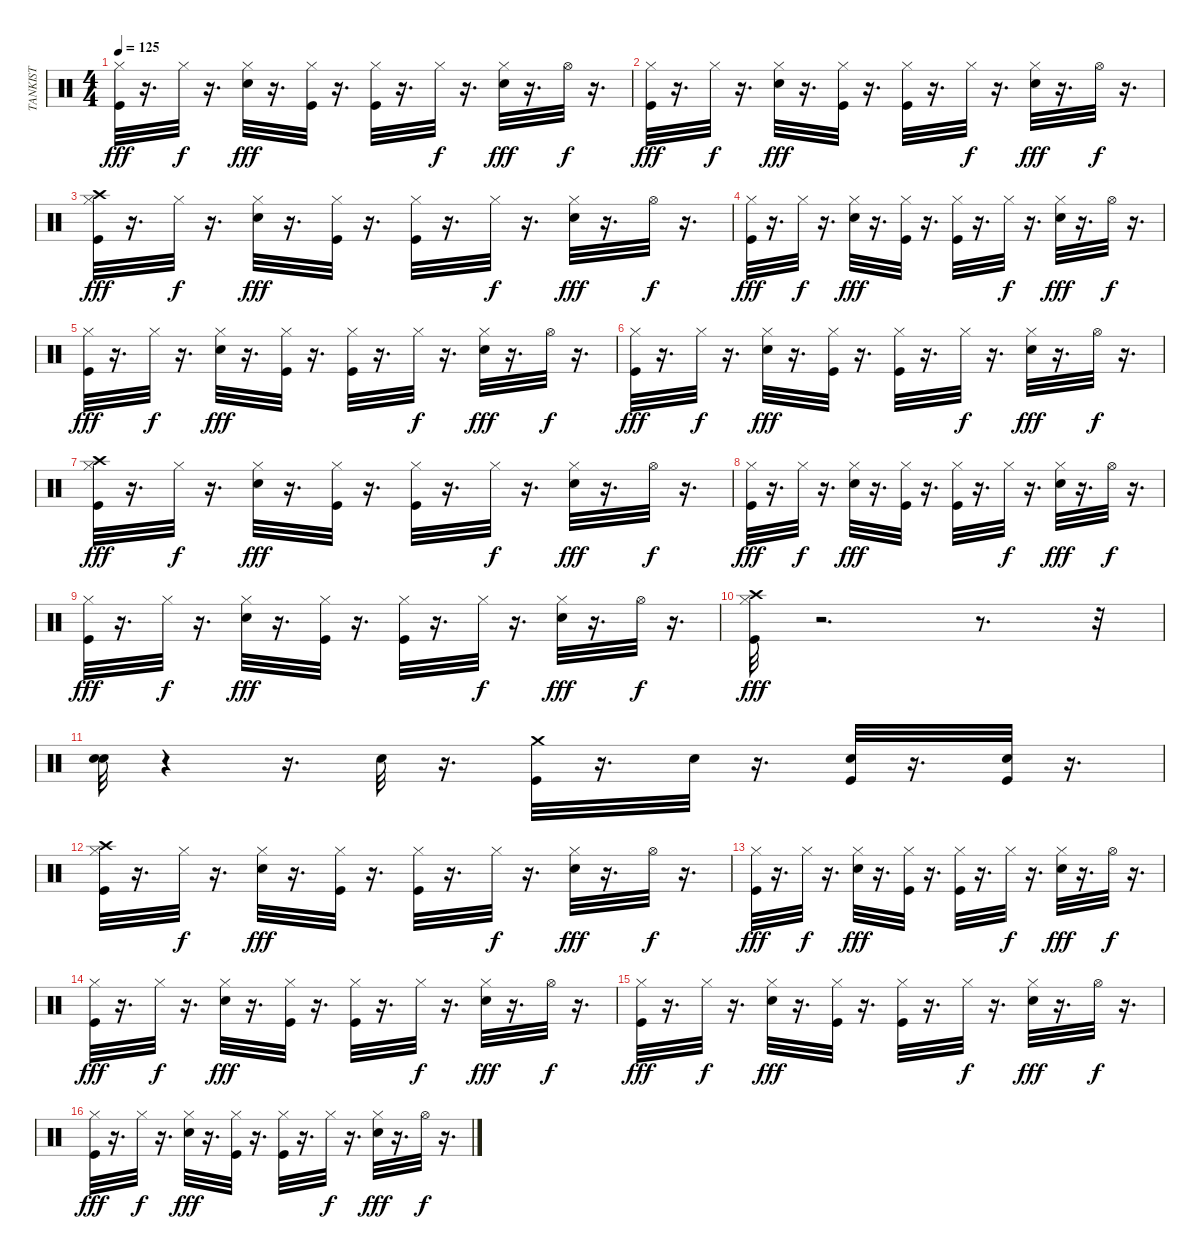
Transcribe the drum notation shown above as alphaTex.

\track ("TANKIST" "TANKIST") {instrument percussion}
\staff {score}
\articulation defaults
\ts (4 4)
\tempo 125
\clef neutral
\ks c
("Hi-Hat (closed)" "Kick (hit)").32{dy fff} r.16{d} "Hi-Hat (closed)".32{dy f} r.16{d} ("Hi-Hat (closed)" "Electric Snare (hit)").32{dy fff} r.16{d} ("Hi-Hat (closed)" "Kick (hit)").32 r.16{d} ("Hi-Hat (closed)" "Kick (hit)").32 r.16{d} "Hi-Hat (closed)".32{dy f} r.16{d} ("Hi-Hat (closed)" "Electric Snare (hit)").32{dy fff} r.16{d} "Hi-Hat (open)".32{dy f} r.16{d} |
("Kick (hit)" "Hi-Hat (closed)").32{dy fff} r.16{d} "Hi-Hat (closed)".32{dy f} r.16{d} ("Electric Snare (hit)" "Hi-Hat (closed)").32{dy fff} r.16{d} ("Kick (hit)" "Hi-Hat (closed)").32 r.16{d} ("Kick (hit)" "Hi-Hat (closed)").32 r.16{d} "Hi-Hat (closed)".32{dy f} r.16{d} ("Electric Snare (hit)" "Hi-Hat (closed)").32{dy fff} r.16{d} "Hi-Hat (open)".32{dy f} r.16{d} |
("Crash high (hit)" "Hi-Hat (closed)" "Kick (hit)").32{dy fff} r.16{d} "Hi-Hat (closed)".32{dy f} r.16{d} ("Hi-Hat (closed)" "Electric Snare (hit)").32{dy fff} r.16{d} ("Hi-Hat (closed)" "Kick (hit)").32 r.16{d} ("Hi-Hat (closed)" "Kick (hit)").32 r.16{d} "Hi-Hat (closed)".32{dy f} r.16{d} ("Hi-Hat (closed)" "Electric Snare (hit)").32{dy fff} r.16{d} "Hi-Hat (open)".32{dy f} r.16{d} |
("Kick (hit)" "Hi-Hat (closed)").32{dy fff} r.16{d} "Hi-Hat (closed)".32{dy f} r.16{d} ("Electric Snare (hit)" "Hi-Hat (closed)").32{dy fff} r.16{d} ("Kick (hit)" "Hi-Hat (closed)").32 r.16{d} ("Kick (hit)" "Hi-Hat (closed)").32 r.16{d} "Hi-Hat (closed)".32{dy f} r.16{d} ("Electric Snare (hit)" "Hi-Hat (closed)").32{dy fff} r.16{d} "Hi-Hat (open)".32{dy f} r.16{d} |
("Hi-Hat (closed)" "Kick (hit)").32{dy fff} r.16{d} "Hi-Hat (closed)".32{dy f} r.16{d} ("Hi-Hat (closed)" "Electric Snare (hit)").32{dy fff} r.16{d} ("Hi-Hat (closed)" "Kick (hit)").32 r.16{d} ("Hi-Hat (closed)" "Kick (hit)").32 r.16{d} "Hi-Hat (closed)".32{dy f} r.16{d} ("Hi-Hat (closed)" "Electric Snare (hit)").32{dy fff} r.16{d} "Hi-Hat (open)".32{dy f} r.16{d} |
("Kick (hit)" "Hi-Hat (closed)").32{dy fff} r.16{d} "Hi-Hat (closed)".32{dy f} r.16{d} ("Electric Snare (hit)" "Hi-Hat (closed)").32{dy fff} r.16{d} ("Kick (hit)" "Hi-Hat (closed)").32 r.16{d} ("Kick (hit)" "Hi-Hat (closed)").32 r.16{d} "Hi-Hat (closed)".32{dy f} r.16{d} ("Electric Snare (hit)" "Hi-Hat (closed)").32{dy fff} r.16{d} "Hi-Hat (open)".32{dy f} r.16{d} |
("Crash high (hit)" "Hi-Hat (closed)" "Kick (hit)").32{dy fff} r.16{d} "Hi-Hat (closed)".32{dy f} r.16{d} ("Hi-Hat (closed)" "Electric Snare (hit)").32{dy fff} r.16{d} ("Hi-Hat (closed)" "Kick (hit)").32 r.16{d} ("Hi-Hat (closed)" "Kick (hit)").32 r.16{d} "Hi-Hat (closed)".32{dy f} r.16{d} ("Hi-Hat (closed)" "Electric Snare (hit)").32{dy fff} r.16{d} "Hi-Hat (open)".32{dy f} r.16{d} |
("Kick (hit)" "Hi-Hat (closed)").32{dy fff} r.16{d} "Hi-Hat (closed)".32{dy f} r.16{d} ("Electric Snare (hit)" "Hi-Hat (closed)").32{dy fff} r.16{d} ("Kick (hit)" "Hi-Hat (closed)").32 r.16{d} ("Kick (hit)" "Hi-Hat (closed)").32 r.16{d} "Hi-Hat (closed)".32{dy f} r.16{d} ("Electric Snare (hit)" "Hi-Hat (closed)").32{dy fff} r.16{d} "Hi-Hat (open)".32{dy f} r.16{d} |
("Hi-Hat (closed)" "Kick (hit)").32{dy fff} r.16{d} "Hi-Hat (closed)".32{dy f} r.16{d} ("Hi-Hat (closed)" "Electric Snare (hit)").32{dy fff} r.16{d} ("Hi-Hat (closed)" "Kick (hit)").32 r.16{d} ("Hi-Hat (closed)" "Kick (hit)").32 r.16{d} "Hi-Hat (closed)".32{dy f} r.16{d} ("Hi-Hat (closed)" "Electric Snare (hit)").32{dy fff} r.16{d} "Hi-Hat (open)".32{dy f} r.16{d} |
("Crash high (hit)" "Kick (hit)" "Hi-Hat (closed)").32{dy fff} r.2{d} r.8{d} r.32 |
("Snare (hit) 2" "Electric Snare (hit)").32 r.4 r.16{d} "Electric Snare (hit)".32 r.16{d} ("Crash medium (hit)" "Kick (hit)").32 r.16{d} "Electric Snare (hit)".32 r.16{d} ("Electric Snare (hit)" "Kick (hit)").32 r.16{d} ("Kick (hit)" "Electric Snare (hit)").32 r.16{d} |
("Crash high (hit)" "Hi-Hat (closed)" "Kick (hit)").32 r.16{d} "Hi-Hat (closed)".32{dy f} r.16{d} ("Hi-Hat (closed)" "Electric Snare (hit)").32{dy fff} r.16{d} ("Hi-Hat (closed)" "Kick (hit)").32 r.16{d} ("Hi-Hat (closed)" "Kick (hit)").32 r.16{d} "Hi-Hat (closed)".32{dy f} r.16{d} ("Hi-Hat (closed)" "Electric Snare (hit)").32{dy fff} r.16{d} "Hi-Hat (open)".32{dy f} r.16{d} |
("Kick (hit)" "Hi-Hat (closed)").32{dy fff} r.16{d} "Hi-Hat (closed)".32{dy f} r.16{d} ("Electric Snare (hit)" "Hi-Hat (closed)").32{dy fff} r.16{d} ("Kick (hit)" "Hi-Hat (closed)").32 r.16{d} ("Kick (hit)" "Hi-Hat (closed)").32 r.16{d} "Hi-Hat (closed)".32{dy f} r.16{d} ("Electric Snare (hit)" "Hi-Hat (closed)").32{dy fff} r.16{d} "Hi-Hat (open)".32{dy f} r.16{d} |
("Hi-Hat (closed)" "Kick (hit)").32{dy fff} r.16{d} "Hi-Hat (closed)".32{dy f} r.16{d} ("Hi-Hat (closed)" "Electric Snare (hit)").32{dy fff} r.16{d} ("Hi-Hat (closed)" "Kick (hit)").32 r.16{d} ("Hi-Hat (closed)" "Kick (hit)").32 r.16{d} "Hi-Hat (closed)".32{dy f} r.16{d} ("Hi-Hat (closed)" "Electric Snare (hit)").32{dy fff} r.16{d} "Hi-Hat (open)".32{dy f} r.16{d} |
("Kick (hit)" "Hi-Hat (closed)").32{dy fff} r.16{d} "Hi-Hat (closed)".32{dy f} r.16{d} ("Electric Snare (hit)" "Hi-Hat (closed)").32{dy fff} r.16{d} ("Kick (hit)" "Hi-Hat (closed)").32 r.16{d} ("Kick (hit)" "Hi-Hat (closed)").32 r.16{d} "Hi-Hat (closed)".32{dy f} r.16{d} ("Electric Snare (hit)" "Hi-Hat (closed)").32{dy fff} r.16{d} "Hi-Hat (open)".32{dy f} r.16{d} |
("Hi-Hat (closed)" "Kick (hit)").32{dy fff} r.16{d} "Hi-Hat (closed)".32{dy f} r.16{d} ("Hi-Hat (closed)" "Electric Snare (hit)").32{dy fff} r.16{d} ("Hi-Hat (closed)" "Kick (hit)").32 r.16{d} ("Hi-Hat (closed)" "Kick (hit)").32 r.16{d} "Hi-Hat (closed)".32{dy f} r.16{d} ("Hi-Hat (closed)" "Electric Snare (hit)").32{dy fff} r.16{d} "Hi-Hat (open)".32{dy f} r.16{d}
